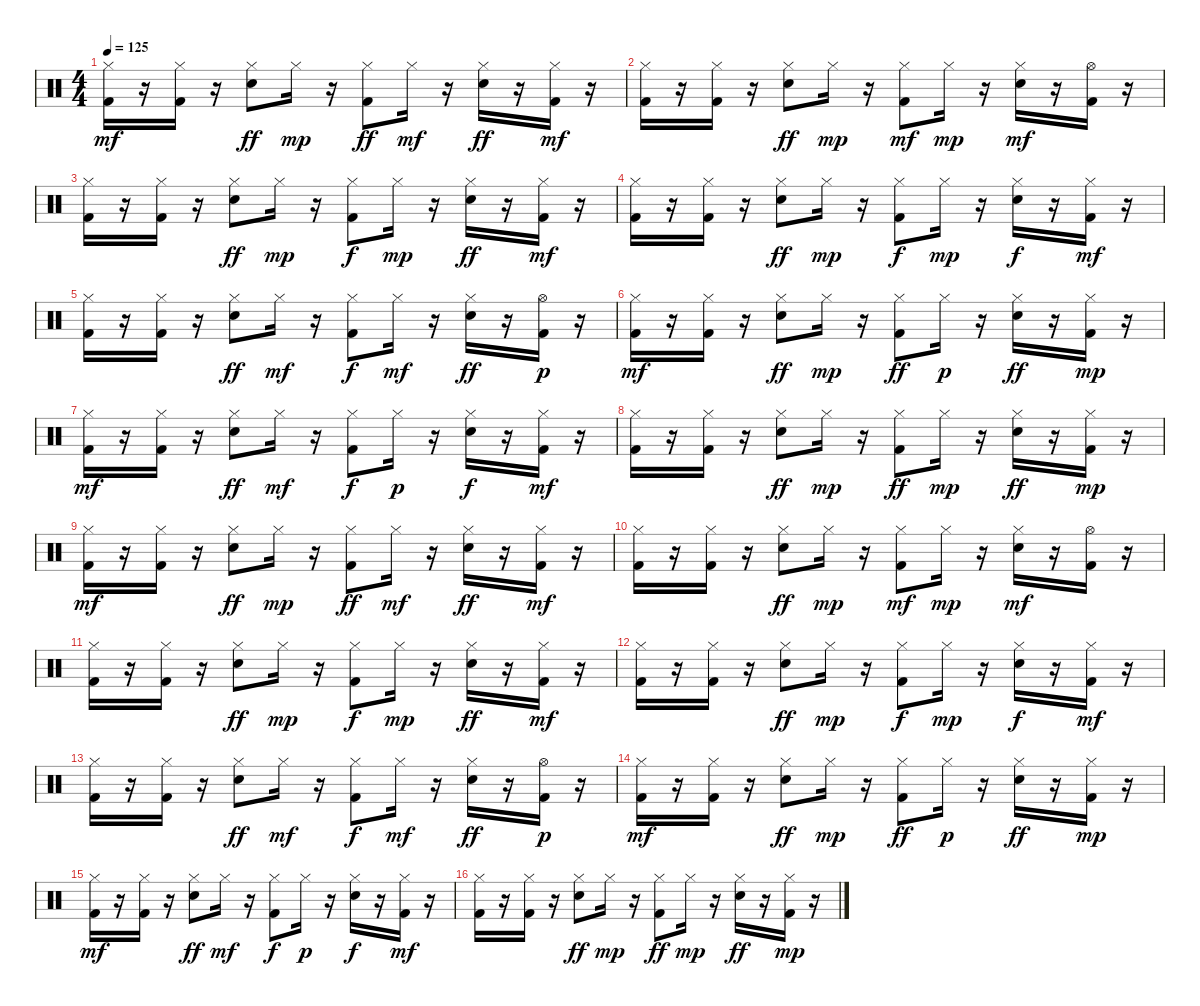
\track "" {instrument percussion}
\staff {score}
\articulation defaults
\ts (4 4)
\tempo 125
\clef neutral
\ks c
("Hi-Hat (closed)" "Kick (hit) 2").16{dy mf} r.16 ("Hi-Hat (closed)" "Kick (hit) 2").16 r.16 ("Hi-Hat (closed)" "Snare (hit) 2").8{dy ff} "Hi-Hat (closed)".16{dy mp} r.16 ("Hi-Hat (closed)" "Kick (hit) 2").8{dy ff} "Hi-Hat (closed)".16{dy mf} r.16 ("Snare (hit) 2" "Hi-Hat (closed)").16{dy ff} r.16 ("Kick (hit) 2" "Hi-Hat (closed)").16{dy mf} r.16 |
("Hi-Hat (closed)" "Kick (hit) 2").16 r.16 ("Kick (hit) 2" "Hi-Hat (closed)").16 r.16 ("Hi-Hat (closed)" "Snare (hit) 2").8{dy ff} "Hi-Hat (closed)".16{dy mp} r.16 ("Kick (hit) 2" "Hi-Hat (closed)").8{dy mf} "Hi-Hat (closed)".16{dy mp} r.16 ("Snare (hit) 2" "Hi-Hat (closed)").16{dy mf} r.16 ("Hi-Hat (open)" "Kick (hit) 2").16 r.16 |
("Hi-Hat (closed)" "Kick (hit) 2").16 r.16 ("Hi-Hat (closed)" "Kick (hit) 2").16 r.16 ("Snare (hit) 2" "Hi-Hat (closed)").8{dy ff} "Hi-Hat (closed)".16{dy mp} r.16 ("Hi-Hat (closed)" "Kick (hit) 2").8{dy f} "Hi-Hat (closed)".16{dy mp} r.16 ("Hi-Hat (closed)" "Snare (hit) 2").16{dy ff} r.16 ("Hi-Hat (closed)" "Kick (hit) 2").16{dy mf} r.16 |
("Hi-Hat (closed)" "Kick (hit) 2").16 r.16 ("Hi-Hat (closed)" "Kick (hit) 2").16 r.16 ("Hi-Hat (closed)" "Snare (hit) 2").8{dy ff} "Hi-Hat (closed)".16{dy mp} r.16 ("Hi-Hat (closed)" "Kick (hit) 2").8{dy f} "Hi-Hat (closed)".16{dy mp} r.16 ("Snare (hit) 2" "Hi-Hat (closed)").16{dy f} r.16 ("Kick (hit) 2" "Hi-Hat (closed)").16{dy mf} r.16 |
("Hi-Hat (closed)" "Kick (hit) 2").16 r.16 ("Kick (hit) 2" "Hi-Hat (closed)").16 r.16 ("Snare (hit) 2" "Hi-Hat (closed)").8{dy ff} "Hi-Hat (closed)".16{dy mf} r.16 ("Kick (hit) 2" "Hi-Hat (closed)").8{dy f} "Hi-Hat (closed)".16{dy mf} r.16 ("Hi-Hat (closed)" "Snare (hit) 2").16{dy ff} r.16 ("Kick (hit) 2" "Hi-Hat (open)").16{dy p} r.16 |
("Hi-Hat (closed)" "Kick (hit) 2").16{dy mf} r.16 ("Kick (hit) 2" "Hi-Hat (closed)").16 r.16 ("Hi-Hat (closed)" "Snare (hit) 2").8{dy ff} "Hi-Hat (closed)".16{dy mp} r.16 ("Kick (hit) 2" "Hi-Hat (closed)").8{dy ff} "Hi-Hat (closed)".16{dy p} r.16 ("Hi-Hat (closed)" "Snare (hit) 2").16{dy ff} r.16 ("Hi-Hat (closed)" "Kick (hit) 2").16{dy mp} r.16 |
("Hi-Hat (closed)" "Kick (hit) 2").16{dy mf} r.16 ("Hi-Hat (closed)" "Kick (hit) 2").16 r.16 ("Snare (hit) 2" "Hi-Hat (closed)").8{dy ff} "Hi-Hat (closed)".16{dy mf} r.16 ("Kick (hit) 2" "Hi-Hat (closed)").8{dy f} "Hi-Hat (closed)".16{dy p} r.16 ("Snare (hit) 2" "Hi-Hat (closed)").16{dy f} r.16 ("Hi-Hat (closed)" "Kick (hit) 2").16{dy mf} r.16 |
("Hi-Hat (closed)" "Kick (hit) 2").16 r.16 ("Hi-Hat (closed)" "Kick (hit) 2").16 r.16 ("Snare (hit) 2" "Hi-Hat (closed)").8{dy ff} "Hi-Hat (closed)".16{dy mp} r.16 ("Kick (hit) 2" "Hi-Hat (closed)").8{dy ff} "Hi-Hat (closed)".16{dy mp} r.16 ("Snare (hit) 2" "Hi-Hat (closed)").16{dy ff} r.16 ("Hi-Hat (closed)" "Kick (hit) 2").16{dy mp} r.16 |
("Hi-Hat (closed)" "Kick (hit) 2").16{dy mf} r.16 ("Hi-Hat (closed)" "Kick (hit) 2").16 r.16 ("Hi-Hat (closed)" "Snare (hit) 2").8{dy ff} "Hi-Hat (closed)".16{dy mp} r.16 ("Hi-Hat (closed)" "Kick (hit) 2").8{dy ff} "Hi-Hat (closed)".16{dy mf} r.16 ("Snare (hit) 2" "Hi-Hat (closed)").16{dy ff} r.16 ("Kick (hit) 2" "Hi-Hat (closed)").16{dy mf} r.16 |
("Hi-Hat (closed)" "Kick (hit) 2").16 r.16 ("Kick (hit) 2" "Hi-Hat (closed)").16 r.16 ("Hi-Hat (closed)" "Snare (hit) 2").8{dy ff} "Hi-Hat (closed)".16{dy mp} r.16 ("Kick (hit) 2" "Hi-Hat (closed)").8{dy mf} "Hi-Hat (closed)".16{dy mp} r.16 ("Snare (hit) 2" "Hi-Hat (closed)").16{dy mf} r.16 ("Hi-Hat (open)" "Kick (hit) 2").16 r.16 |
("Hi-Hat (closed)" "Kick (hit) 2").16 r.16 ("Hi-Hat (closed)" "Kick (hit) 2").16 r.16 ("Snare (hit) 2" "Hi-Hat (closed)").8{dy ff} "Hi-Hat (closed)".16{dy mp} r.16 ("Hi-Hat (closed)" "Kick (hit) 2").8{dy f} "Hi-Hat (closed)".16{dy mp} r.16 ("Hi-Hat (closed)" "Snare (hit) 2").16{dy ff} r.16 ("Hi-Hat (closed)" "Kick (hit) 2").16{dy mf} r.16 |
("Hi-Hat (closed)" "Kick (hit) 2").16 r.16 ("Hi-Hat (closed)" "Kick (hit) 2").16 r.16 ("Hi-Hat (closed)" "Snare (hit) 2").8{dy ff} "Hi-Hat (closed)".16{dy mp} r.16 ("Hi-Hat (closed)" "Kick (hit) 2").8{dy f} "Hi-Hat (closed)".16{dy mp} r.16 ("Snare (hit) 2" "Hi-Hat (closed)").16{dy f} r.16 ("Kick (hit) 2" "Hi-Hat (closed)").16{dy mf} r.16 |
("Hi-Hat (closed)" "Kick (hit) 2").16 r.16 ("Kick (hit) 2" "Hi-Hat (closed)").16 r.16 ("Snare (hit) 2" "Hi-Hat (closed)").8{dy ff} "Hi-Hat (closed)".16{dy mf} r.16 ("Kick (hit) 2" "Hi-Hat (closed)").8{dy f} "Hi-Hat (closed)".16{dy mf} r.16 ("Hi-Hat (closed)" "Snare (hit) 2").16{dy ff} r.16 ("Kick (hit) 2" "Hi-Hat (open)").16{dy p} r.16 |
("Hi-Hat (closed)" "Kick (hit) 2").16{dy mf} r.16 ("Kick (hit) 2" "Hi-Hat (closed)").16 r.16 ("Hi-Hat (closed)" "Snare (hit) 2").8{dy ff} "Hi-Hat (closed)".16{dy mp} r.16 ("Kick (hit) 2" "Hi-Hat (closed)").8{dy ff} "Hi-Hat (closed)".16{dy p} r.16 ("Hi-Hat (closed)" "Snare (hit) 2").16{dy ff} r.16 ("Hi-Hat (closed)" "Kick (hit) 2").16{dy mp} r.16 |
("Hi-Hat (closed)" "Kick (hit) 2").16{dy mf} r.16 ("Hi-Hat (closed)" "Kick (hit) 2").16 r.16 ("Snare (hit) 2" "Hi-Hat (closed)").8{dy ff} "Hi-Hat (closed)".16{dy mf} r.16 ("Kick (hit) 2" "Hi-Hat (closed)").8{dy f} "Hi-Hat (closed)".16{dy p} r.16 ("Snare (hit) 2" "Hi-Hat (closed)").16{dy f} r.16 ("Hi-Hat (closed)" "Kick (hit) 2").16{dy mf} r.16 |
("Hi-Hat (closed)" "Kick (hit) 2").16 r.16 ("Hi-Hat (closed)" "Kick (hit) 2").16 r.16 ("Snare (hit) 2" "Hi-Hat (closed)").8{dy ff} "Hi-Hat (closed)".16{dy mp} r.16 ("Kick (hit) 2" "Hi-Hat (closed)").8{dy ff} "Hi-Hat (closed)".16{dy mp} r.16 ("Snare (hit) 2" "Hi-Hat (closed)").16{dy ff} r.16 ("Hi-Hat (closed)" "Kick (hit) 2").16{dy mp} r.16
